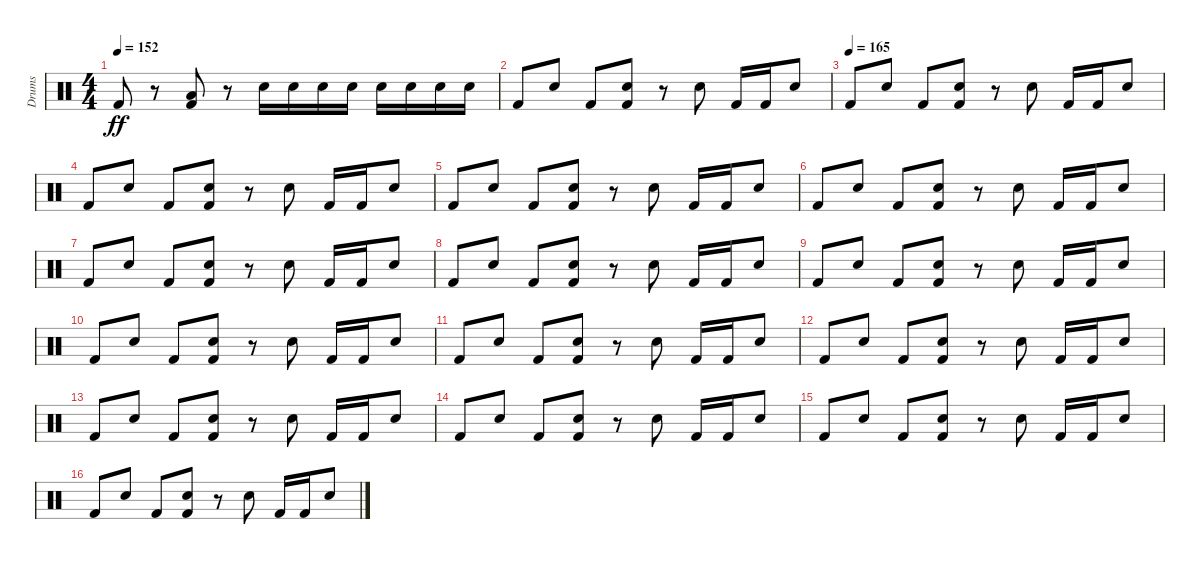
\track ("Drums" "Drums") {instrument percussion}
\staff {score}
\articulation defaults
\ts (4 4)
\tempo 152
\clef neutral
\ks c "Kick (hit) 2".8{dy ff}
r.8 ("Low Tom (hit)" "Kick (hit) 2").8 r.8 "Snare (hit) 2".16 "Snare (hit) 2".16 "Snare (hit) 2".16 "Snare (hit) 2".16 "Snare (hit) 2".16 "Snare (hit) 2".16 "Snare (hit) 2".16 "Snare (hit) 2".16 |
"Kick (hit) 2".8 "Snare (hit) 2".8 "Kick (hit) 2".8 ("Kick (hit) 2" "Snare (hit) 2").8 r.8 "Snare (hit) 2".8 "Kick (hit) 2".16 "Kick (hit) 2".16 "Snare (hit) 2".8 |
\tempo (165)
"Kick (hit) 2".8 "Snare (hit) 2".8 "Kick (hit) 2".8 ("Snare (hit) 2" "Kick (hit) 2").8 r.8 "Snare (hit) 2".8 "Kick (hit) 2".16 "Kick (hit) 2".16 "Snare (hit) 2".8 |
"Kick (hit) 2".8 "Snare (hit) 2".8 "Kick (hit) 2".8 ("Kick (hit) 2" "Snare (hit) 2").8 r.8 "Snare (hit) 2".8 "Kick (hit) 2".16 "Kick (hit) 2".16 "Snare (hit) 2".8 |
"Kick (hit) 2".8 "Snare (hit) 2".8 "Kick (hit) 2".8 ("Snare (hit) 2" "Kick (hit) 2").8 r.8 "Snare (hit) 2".8 "Kick (hit) 2".16 "Kick (hit) 2".16 "Snare (hit) 2".8 |
"Kick (hit) 2".8 "Snare (hit) 2".8 "Kick (hit) 2".8 ("Kick (hit) 2" "Snare (hit) 2").8 r.8 "Snare (hit) 2".8 "Kick (hit) 2".16 "Kick (hit) 2".16 "Snare (hit) 2".8 |
"Kick (hit) 2".8 "Snare (hit) 2".8 "Kick (hit) 2".8 ("Snare (hit) 2" "Kick (hit) 2").8 r.8 "Snare (hit) 2".8 "Kick (hit) 2".16 "Kick (hit) 2".16 "Snare (hit) 2".8 |
"Kick (hit) 2".8 "Snare (hit) 2".8 "Kick (hit) 2".8 ("Kick (hit) 2" "Snare (hit) 2").8 r.8 "Snare (hit) 2".8 "Kick (hit) 2".16 "Kick (hit) 2".16 "Snare (hit) 2".8 |
"Kick (hit) 2".8 "Snare (hit) 2".8 "Kick (hit) 2".8 ("Snare (hit) 2" "Kick (hit) 2").8 r.8 "Snare (hit) 2".8 "Kick (hit) 2".16 "Kick (hit) 2".16 "Snare (hit) 2".8 |
"Kick (hit) 2".8 "Snare (hit) 2".8 "Kick (hit) 2".8 ("Snare (hit) 2" "Kick (hit) 2").8 r.8 "Snare (hit) 2".8 "Kick (hit) 2".16 "Kick (hit) 2".16 "Snare (hit) 2".8 |
"Kick (hit) 2".8 "Snare (hit) 2".8 "Kick (hit) 2".8 ("Kick (hit) 2" "Snare (hit) 2").8 r.8 "Snare (hit) 2".8 "Kick (hit) 2".16 "Kick (hit) 2".16 "Snare (hit) 2".8 |
"Kick (hit) 2".8 "Snare (hit) 2".8 "Kick (hit) 2".8 ("Snare (hit) 2" "Kick (hit) 2").8 r.8 "Snare (hit) 2".8 "Kick (hit) 2".16 "Kick (hit) 2".16 "Snare (hit) 2".8 |
"Kick (hit) 2".8 "Snare (hit) 2".8 "Kick (hit) 2".8 ("Kick (hit) 2" "Snare (hit) 2").8 r.8 "Snare (hit) 2".8 "Kick (hit) 2".16 "Kick (hit) 2".16 "Snare (hit) 2".8 |
"Kick (hit) 2".8 "Snare (hit) 2".8 "Kick (hit) 2".8 ("Snare (hit) 2" "Kick (hit) 2").8 r.8 "Snare (hit) 2".8 "Kick (hit) 2".16 "Kick (hit) 2".16 "Snare (hit) 2".8 |
"Kick (hit) 2".8 "Snare (hit) 2".8 "Kick (hit) 2".8 ("Kick (hit) 2" "Snare (hit) 2").8 r.8 "Snare (hit) 2".8 "Kick (hit) 2".16 "Kick (hit) 2".16 "Snare (hit) 2".8 |
"Kick (hit) 2".8 "Snare (hit) 2".8 "Kick (hit) 2".8 ("Snare (hit) 2" "Kick (hit) 2").8 r.8 "Snare (hit) 2".8 "Kick (hit) 2".16 "Kick (hit) 2".16 "Snare (hit) 2".8
